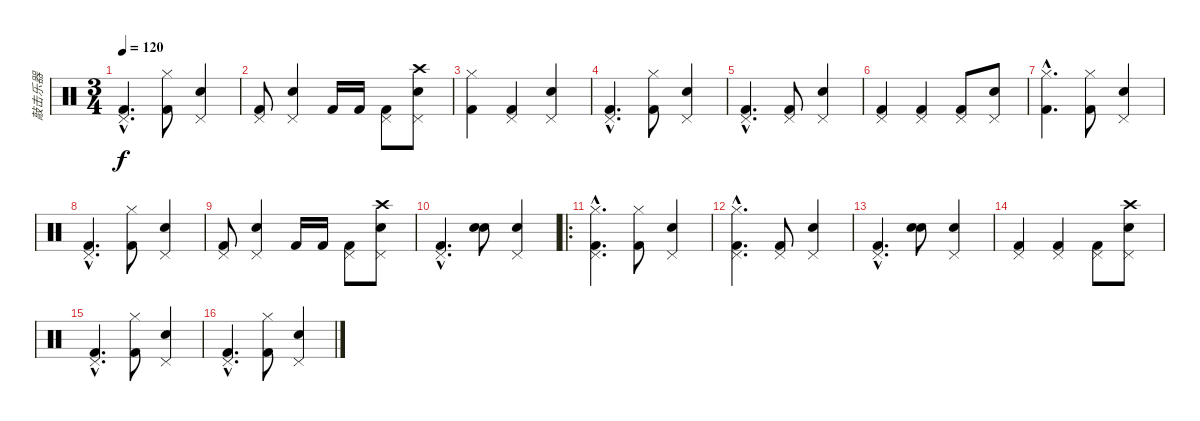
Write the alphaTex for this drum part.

\track ("敲击乐器" "敲击乐器") {instrument percussion}
\staff {score}
\articulation defaults
\ts (3 4)
\tempo 120
\clef neutral
\ks c
("Kick (hit) 2"{hac} "Pedal Hi-Hat (hit)"{hac}).4{d dy f} ("Kick (hit) 2" "Hi-Hat (closed)").8 ("Pedal Hi-Hat (hit)" "Snare (hit) 2").4 |
("Kick (hit) 2" "Pedal Hi-Hat (hit)").8 ("Pedal Hi-Hat (hit)" "Snare (hit) 2").4 "Kick (hit) 2".16 "Kick (hit) 2".16 ("Kick (hit) 2" "Pedal Hi-Hat (hit)").8 ("Snare (hit) 2" "Crash high (hit)" "Pedal Hi-Hat (hit)").8 |
("Kick (hit) 2" "Hi-Hat (closed)").4 ("Kick (hit) 2" "Pedal Hi-Hat (hit)").4 ("Snare (hit) 2" "Pedal Hi-Hat (hit)").4 |
("Kick (hit) 2"{hac} "Pedal Hi-Hat (hit)"{hac}).4{d} ("Kick (hit) 2" "Hi-Hat (closed)").8 ("Pedal Hi-Hat (hit)" "Snare (hit) 2").4 |
("Kick (hit) 2"{hac} "Pedal Hi-Hat (hit)"{hac}).4{d} ("Kick (hit) 2" "Pedal Hi-Hat (hit)").8 ("Pedal Hi-Hat (hit)" "Snare (hit) 2").4 |
("Kick (hit) 2" "Pedal Hi-Hat (hit)").4 ("Kick (hit) 2" "Pedal Hi-Hat (hit)").4 ("Kick (hit) 2" "Pedal Hi-Hat (hit)").8 ("Snare (hit) 2" "Pedal Hi-Hat (hit)").8 |
("Kick (hit) 2"{hac} "Hi-Hat (closed)"{hac}).4{d} ("Kick (hit) 2" "Hi-Hat (closed)").8 ("Pedal Hi-Hat (hit)" "Snare (hit) 2").4 |
("Kick (hit) 2"{hac} "Pedal Hi-Hat (hit)"{hac}).4{d} ("Kick (hit) 2" "Hi-Hat (closed)").8 ("Pedal Hi-Hat (hit)" "Snare (hit) 2").4 |
("Kick (hit) 2" "Pedal Hi-Hat (hit)").8 ("Pedal Hi-Hat (hit)" "Snare (hit) 2").4 "Kick (hit) 2".16 "Kick (hit) 2".16 ("Kick (hit) 2" "Pedal Hi-Hat (hit)").8 ("Snare (hit) 2" "Crash high (hit)" "Pedal Hi-Hat (hit)").8 |
("Kick (hit) 2"{hac} "Pedal Hi-Hat (hit)"{hac}).4{d} ("Snare (hit) 2" "Electric Snare (hit)").8 ("Snare (hit) 2" "Pedal Hi-Hat (hit)").4 |
\ro
("Kick (hit) 2"{hac} "Hi-Hat (closed)"{hac} "Pedal Hi-Hat (hit)"{hac}).4{d} ("Kick (hit) 2" "Hi-Hat (closed)").8 ("Pedal Hi-Hat (hit)" "Snare (hit) 2").4 |
("Kick (hit) 2"{hac} "Hi-Hat (closed)"{hac} "Pedal Hi-Hat (hit)"{hac}).4{d} ("Kick (hit) 2" "Pedal Hi-Hat (hit)").8 ("Pedal Hi-Hat (hit)" "Snare (hit) 2").4 |
("Kick (hit) 2"{hac} "Pedal Hi-Hat (hit)"{hac}).4{d} ("Snare (hit) 2" "Electric Snare (hit)").8 ("Snare (hit) 2" "Pedal Hi-Hat (hit)").4 |
("Kick (hit) 2" "Pedal Hi-Hat (hit)").4 ("Kick (hit) 2" "Pedal Hi-Hat (hit)").4 ("Kick (hit) 2" "Pedal Hi-Hat (hit)").8 ("Snare (hit) 2" "Pedal Hi-Hat (hit)" "Crash high (hit)").8 |
("Kick (hit) 2"{hac} "Pedal Hi-Hat (hit)"{hac}).4{d} ("Kick (hit) 2" "Hi-Hat (closed)").8 ("Pedal Hi-Hat (hit)" "Snare (hit) 2").4 |
("Kick (hit) 2"{hac} "Pedal Hi-Hat (hit)"{hac}).4{d} ("Kick (hit) 2" "Hi-Hat (closed)").8 ("Pedal Hi-Hat (hit)" "Snare (hit) 2").4
